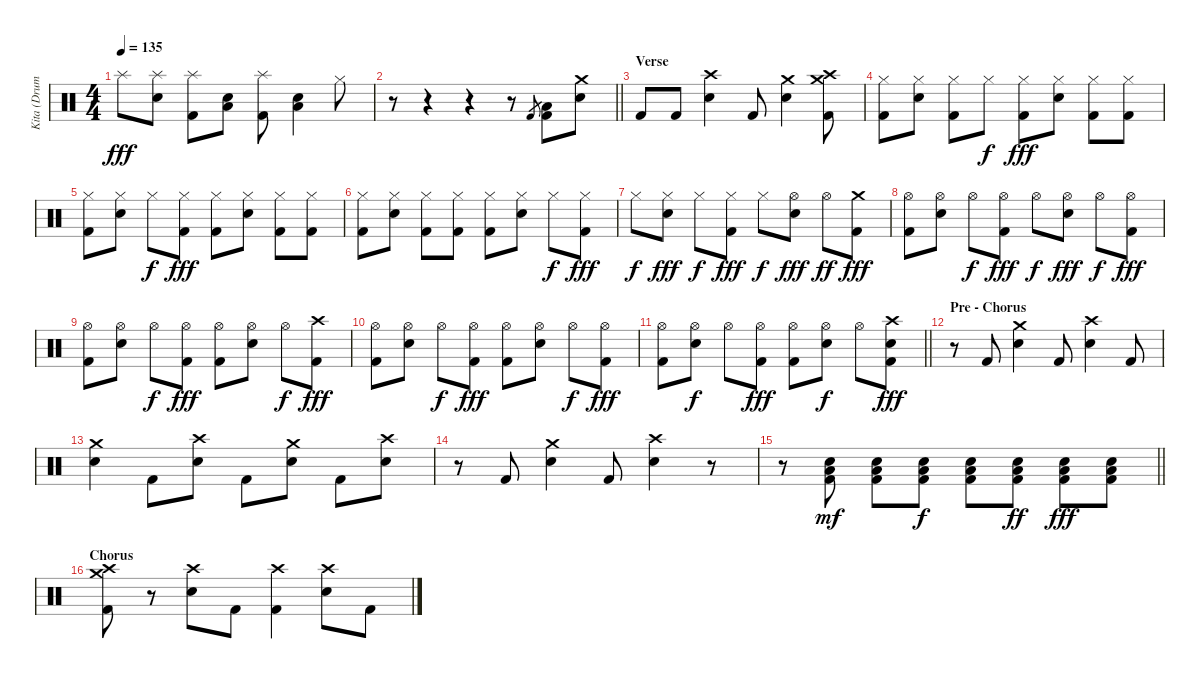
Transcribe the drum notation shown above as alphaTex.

\track ("Kita (Drums)" "Kita (Drum") {instrument percussion}
\staff {score}
\articulation defaults
\ts (4 4)
\tempo 135
\clef neutral
\ks c "Splash (hit)".8{dy fff}
("Splash (hit)" "Electric Snare (hit)").8 ("Splash (hit)" "Kick (hit) 2").8 ("Low Floor Tom (hit)" "Electric Snare (hit)").8 ("Splash (hit)" "Kick (hit) 2").8 ("Low Floor Tom (hit)" "Electric Snare (hit)").4 "Hi-Hat (closed)".8 |
\barLineRight lightlight
r.8 r.4 r.4 r.8 "Kick (hit) 2".8{gr} ("Low Floor Tom (hit)" "Kick (hit) 2").8 ("Crash medium (hit)" "Electric Snare (hit)").8 |
\section ("" "Verse")
"Kick (hit) 2".8 "Kick (hit) 2".8 ("Crash high (hit)" "Electric Snare (hit)").4 "Kick (hit) 2".8 ("Crash medium (hit)" "Electric Snare (hit)").4 ("Crash medium (hit)" "Crash high (hit)" "Kick (hit) 2").8 |
("Hi-Hat (closed)" "Kick (hit) 2").8 ("Hi-Hat (closed)" "Electric Snare (hit)").8 ("Hi-Hat (closed)" "Kick (hit) 2").8 "Hi-Hat (closed)".8{dy f} ("Hi-Hat (closed)" "Kick (hit) 2").8{dy fff} ("Hi-Hat (closed)" "Electric Snare (hit)").8 ("Hi-Hat (closed)" "Kick (hit) 2").8 ("Hi-Hat (closed)" "Kick (hit) 2").8 |
("Hi-Hat (closed)" "Kick (hit) 2").8 ("Hi-Hat (closed)" "Electric Snare (hit)").8 "Hi-Hat (closed)".8{dy f} ("Hi-Hat (closed)" "Kick (hit) 2").8{dy fff} ("Hi-Hat (closed)" "Kick (hit) 2").8 ("Hi-Hat (closed)" "Electric Snare (hit)").8 ("Hi-Hat (closed)" "Kick (hit) 2").8 ("Hi-Hat (closed)" "Kick (hit) 2").8 |
("Hi-Hat (closed)" "Kick (hit) 2").8 ("Hi-Hat (closed)" "Electric Snare (hit)").8 ("Hi-Hat (closed)" "Kick (hit) 2").8 ("Hi-Hat (closed)" "Kick (hit) 2").8 ("Hi-Hat (closed)" "Kick (hit) 2").8 ("Hi-Hat (closed)" "Electric Snare (hit)").8 "Hi-Hat (closed)".8{dy f} ("Hi-Hat (closed)" "Kick (hit) 2").8{dy fff} |
"Hi-Hat (closed)".8{dy f} ("Hi-Hat (closed)" "Electric Snare (hit)").8{dy fff} "Hi-Hat (closed)".8{dy f} ("Hi-Hat (closed)" "Kick (hit) 2").8{dy fff} "Hi-Hat (closed)".8{dy f} ("Hi-Hat (open)" "Electric Snare (hit)").8{dy fff} "Hi-Hat (open)".8{dy ff} ("Crash medium (hit)" "Kick (hit) 2").8{dy fff} |
("Hi-Hat (open)" "Kick (hit) 2").8 ("Hi-Hat (open)" "Electric Snare (hit)").8 "Hi-Hat (open)".8{dy f} ("Hi-Hat (open)" "Kick (hit) 2").8{dy fff} "Hi-Hat (open)".8{dy f} ("Hi-Hat (open)" "Electric Snare (hit)").8{dy fff} "Hi-Hat (open)".8{dy f} ("Hi-Hat (open)" "Kick (hit) 2").8{dy fff} |
("Hi-Hat (open)" "Kick (hit) 2").8 ("Hi-Hat (open)" "Electric Snare (hit)").8 "Hi-Hat (open)".8{dy f} ("Hi-Hat (open)" "Kick (hit) 2").8{dy fff} ("Hi-Hat (open)" "Kick (hit) 2").8 ("Hi-Hat (open)" "Electric Snare (hit)").8 "Hi-Hat (open)".8{dy f} ("Crash high (hit)" "Kick (hit) 2").8{dy fff} |
("Hi-Hat (open)" "Kick (hit) 2").8 ("Hi-Hat (open)" "Electric Snare (hit)").8 "Hi-Hat (open)".8{dy f} ("Hi-Hat (open)" "Kick (hit) 2").8{dy fff} ("Hi-Hat (open)" "Kick (hit) 2").8 ("Hi-Hat (open)" "Electric Snare (hit)").8 "Hi-Hat (open)".8{dy f} ("Hi-Hat (open)" "Kick (hit) 2").8{dy fff} |
\barLineRight lightlight
("Hi-Hat (open)" "Kick (hit) 2").8 ("Hi-Hat (open)" "Electric Snare (hit)").8{dy f} "Hi-Hat (open)".8 ("Hi-Hat (open)" "Kick (hit) 2").8{dy fff} ("Hi-Hat (open)" "Kick (hit) 2").8 ("Hi-Hat (open)" "Electric Snare (hit)").8{dy f} "Hi-Hat (open)".8 ("Crash high (hit)" "Electric Snare (hit)" "Kick (hit) 2").8{dy fff} |
\section ("" "Pre - Chorus")
r.8 "Kick (hit) 2".8 ("Crash medium (hit)" "Electric Snare (hit)").4 "Kick (hit) 2".8 ("Crash high (hit)" "Electric Snare (hit)").4 "Kick (hit) 2".8 |
("Crash medium (hit)" "Electric Snare (hit)").4 "Kick (hit) 2".8 ("Crash high (hit)" "Electric Snare (hit)").8 "Kick (hit) 2".8 ("Crash medium (hit)" "Electric Snare (hit)").8 "Kick (hit) 2".8 ("Crash high (hit)" "Electric Snare (hit)").8 |
r.8 "Kick (hit) 2".8 ("Crash medium (hit)" "Electric Snare (hit)").4 "Kick (hit) 2".8 ("Crash high (hit)" "Electric Snare (hit)").4 r.8 |
\barLineRight lightlight
r.8 ("Low Floor Tom (hit)" "Electric Snare (hit)" "Kick (hit) 2").8{dy mf} ("Low Floor Tom (hit)" "Electric Snare (hit)" "Kick (hit) 2").8 ("Low Floor Tom (hit)" "Electric Snare (hit)" "Kick (hit) 2").8{dy f} ("Low Floor Tom (hit)" "Electric Snare (hit)" "Kick (hit) 2").8 ("Low Floor Tom (hit)" "Electric Snare (hit)" "Kick (hit) 2").8{dy ff} ("Low Floor Tom (hit)" "Electric Snare (hit)" "Kick (hit) 2").8{dy fff} ("Low Floor Tom (hit)" "Electric Snare (hit)" "Kick (hit) 2").8 |
\section ("" "Chorus")
("Crash medium (hit)" "Crash high (hit)" "Kick (hit) 2").8 r.8 ("Crash high (hit)" "Electric Snare (hit)").8 "Kick (hit) 2".8 ("Crash high (hit)" "Kick (hit) 2").4 ("Crash high (hit)" "Electric Snare (hit)").8 "Kick (hit) 2".8
